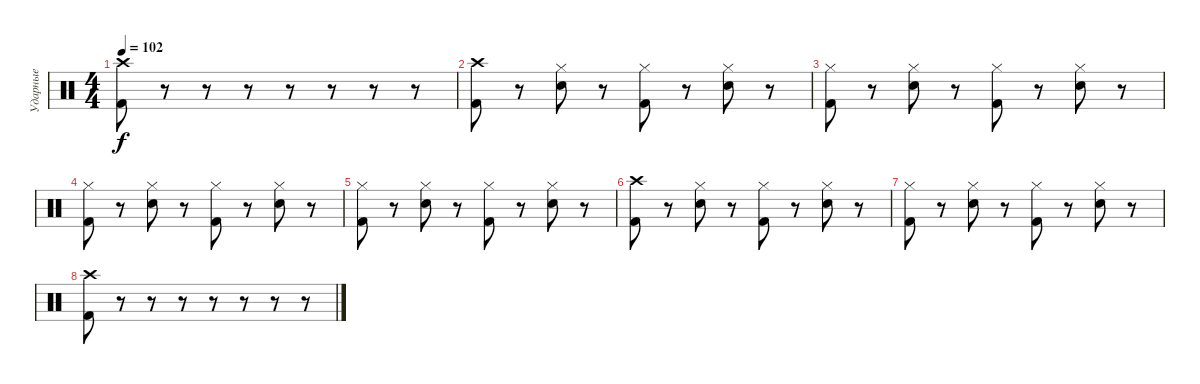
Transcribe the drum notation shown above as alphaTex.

\track ("Ударные" "Ударные") {instrument percussion}
\staff {score}
\articulation defaults
\ts (4 4)
\tempo 102
\clef neutral
\ks c
("Crash high (hit)" "Kick (hit) 2").8{dy f} r.8 r.8 r.8 r.8 r.8 r.8 r.8 |
("Crash high (hit)" "Kick (hit) 2").8 r.8 ("Hi-Hat (closed)" "Snare (hit) 2").8 r.8 ("Hi-Hat (closed)" "Kick (hit) 2").8 r.8 ("Hi-Hat (closed)" "Snare (hit) 2").8 r.8 |
("Hi-Hat (closed)" "Kick (hit) 2").8 r.8 ("Hi-Hat (closed)" "Snare (hit) 2").8 r.8 ("Hi-Hat (closed)" "Kick (hit) 2").8 r.8 ("Hi-Hat (closed)" "Snare (hit) 2").8 r.8 |
("Hi-Hat (closed)" "Kick (hit) 2").8 r.8 ("Hi-Hat (closed)" "Snare (hit) 2").8 r.8 ("Hi-Hat (closed)" "Kick (hit) 2").8 r.8 ("Hi-Hat (closed)" "Snare (hit) 2").8 r.8 |
("Hi-Hat (closed)" "Kick (hit) 2").8 r.8 ("Hi-Hat (closed)" "Snare (hit) 2").8 r.8 ("Hi-Hat (closed)" "Kick (hit) 2").8 r.8 ("Hi-Hat (closed)" "Snare (hit) 2").8 r.8 |
("Crash high (hit)" "Kick (hit) 2").8 r.8 ("Hi-Hat (closed)" "Snare (hit) 2").8 r.8 ("Hi-Hat (closed)" "Kick (hit) 2").8 r.8 ("Hi-Hat (closed)" "Snare (hit) 2").8 r.8 |
("Hi-Hat (closed)" "Kick (hit) 2").8 r.8 ("Hi-Hat (closed)" "Snare (hit) 2").8 r.8 ("Hi-Hat (closed)" "Kick (hit) 2").8 r.8 ("Hi-Hat (closed)" "Snare (hit) 2").8 r.8 |
("Crash high (hit)" "Kick (hit) 2").8 r.8 r.8 r.8 r.8 r.8 r.8 r.8
